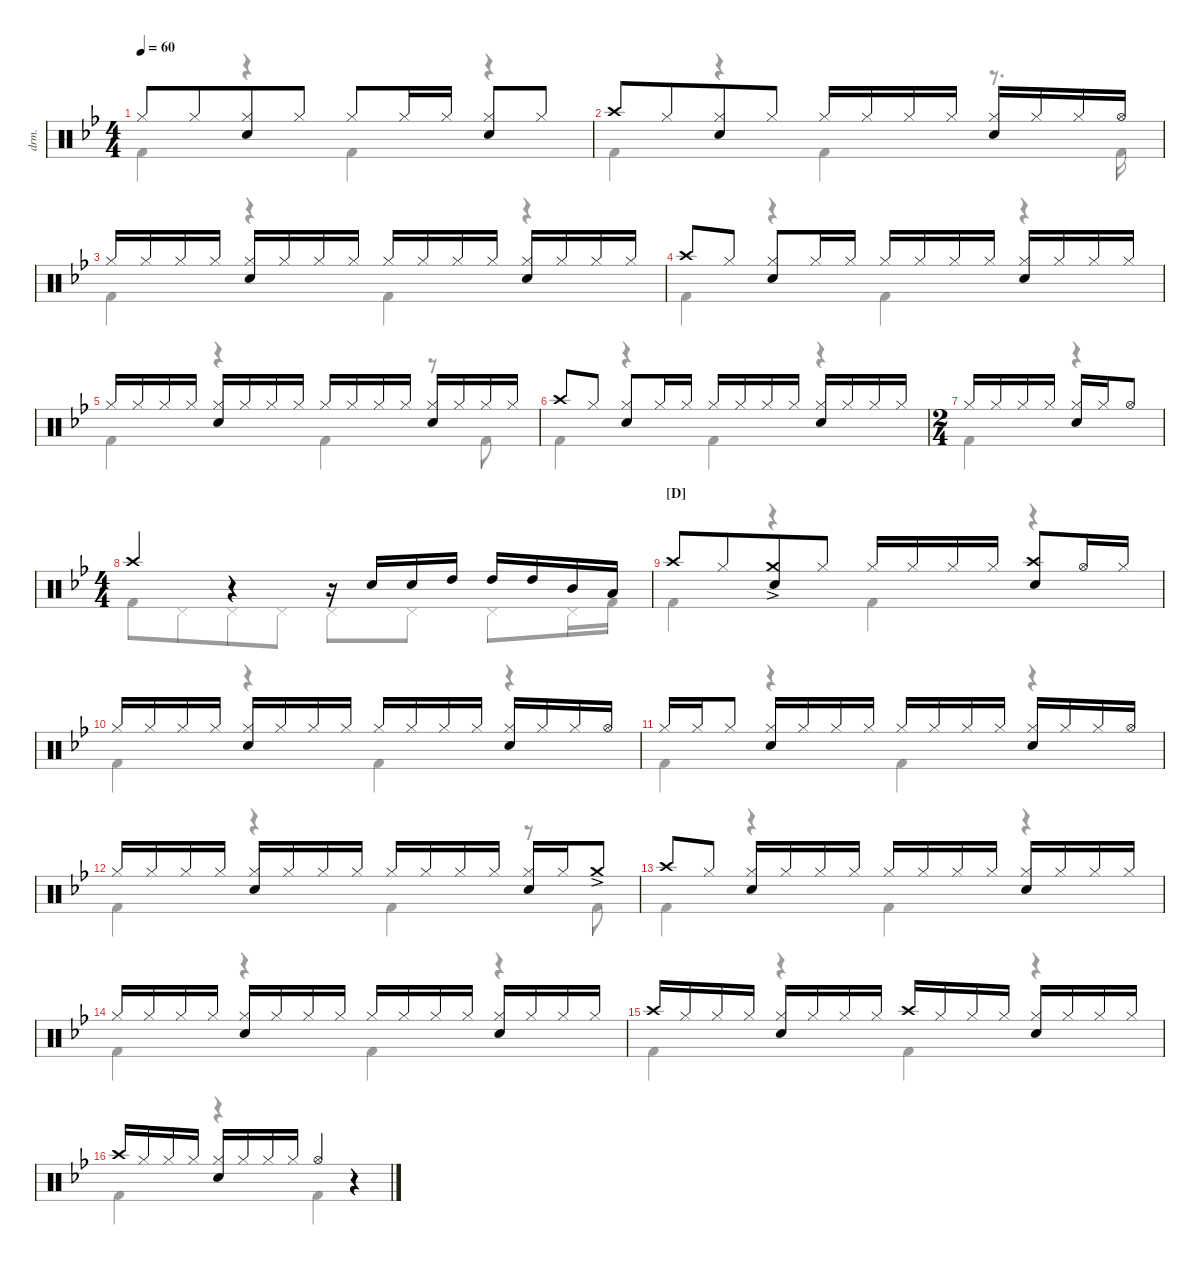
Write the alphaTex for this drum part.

\defaultSystemsLayout 4
\hideDynamics
\bracketExtendMode nobrackets
\otherSystemsTrackNameOrientation horizontal
\track ("Drumkit" "drm.") {instrument percussion}
\staff {score}
\articulation defaults
\voice
\ts (4 4)
\tempo 60
\clef neutral
\ks bb "Hi-Hat (closed)"{acc forcenatural}.8{dy mf beam Up} "Hi-Hat (closed)"{acc forcenatural}.8{dy mp beam Up beam merge}
("Hi-Hat (closed)"{acc forcenatural} "Snare (hit) 2"{acc forcenatural}).8{dy mf beam Up} "Hi-Hat (closed)"{acc forcenatural}.8{dy mp beam Up} "Hi-Hat (closed)"{acc forcenatural}.8{dy mf beam Up} "Hi-Hat (closed)"{acc forcenatural}.16{beam Up} "Hi-Hat (closed)"{acc forcenatural}.16{dy mp beam Up} ("Hi-Hat (closed)"{acc forcenatural} "Snare (hit) 2"{acc forcenatural}).8{dy mf beam Up} "Hi-Hat (closed)"{acc forcenatural}.8{beam Up} |
"Crash high (hit)"{acc forcenatural}.8{beam Up} "Hi-Hat (closed)"{acc forcenatural}.8{beam Up beam merge} ("Snare (hit) 2"{acc forcenatural} "Hi-Hat (closed)"{acc forcenatural}).8{beam Up} "Hi-Hat (closed)"{acc forcenatural}.8{beam Up} "Hi-Hat (closed)"{acc forcenatural}.16{beam Up} "Hi-Hat (closed)"{acc forcenatural}.16{dy mp beam Up} "Hi-Hat (closed)"{acc forcenatural}.16{dy mf beam Up} "Hi-Hat (closed)"{acc forcenatural}.16{dy mp beam Up} ("Hi-Hat (closed)"{acc forcenatural} "Snare (hit) 2"{acc forcenatural}).16{dy mf beam Up} "Hi-Hat (closed)"{acc forcenatural}.16{dy mp beam Up} "Hi-Hat (closed)"{acc forcenatural}.16{dy mf beam Up} "Hi-Hat (open)"{acc forcenatural}.16{beam Up} |
"Hi-Hat (closed)"{acc forcenatural}.16{beam Up} "Hi-Hat (closed)"{acc forcenatural}.16{dy mp beam Up} "Hi-Hat (closed)"{acc forcenatural}.16{dy mf beam Up} "Hi-Hat (closed)"{acc forcenatural}.16{dy mp beam Up} ("Hi-Hat (closed)"{acc forcenatural} "Snare (hit) 2"{acc forcenatural}).16{dy mf beam Up} "Hi-Hat (closed)"{acc forcenatural}.16{dy mp beam Up} "Hi-Hat (closed)"{acc forcenatural}.16{dy mf beam Up} "Hi-Hat (closed)"{acc forcenatural}.16{dy mp beam Up} "Hi-Hat (closed)"{acc forcenatural}.16{dy mf beam Up} "Hi-Hat (closed)"{acc forcenatural}.16{dy mp beam Up} "Hi-Hat (closed)"{acc forcenatural}.16{dy mf beam Up} "Hi-Hat (closed)"{acc forcenatural}.16{dy mp beam Up} ("Hi-Hat (closed)"{acc forcenatural} "Snare (hit) 2"{acc forcenatural}).16{dy mf beam Up} "Hi-Hat (closed)"{acc forcenatural}.16{dy mp beam Up} "Hi-Hat (closed)"{acc forcenatural}.16{dy mf beam Up} "Hi-Hat (closed)"{acc forcenatural}.16{dy mp beam Up} |
"Crash high (hit)"{acc forcenatural}.8{beam Up} "Hi-Hat (closed)"{acc forcenatural}.8{dy mf beam Up} ("Hi-Hat (closed)"{acc forcenatural} "Snare (hit) 2"{acc forcenatural}).8{beam Up} "Hi-Hat (closed)"{acc forcenatural}.16{beam Up} "Hi-Hat (closed)"{acc forcenatural}.16{dy mp beam Up} "Hi-Hat (closed)"{acc forcenatural}.16{dy mf beam Up} "Hi-Hat (closed)"{acc forcenatural}.16{dy mp beam Up} "Hi-Hat (closed)"{acc forcenatural}.16{dy mf beam Up} "Hi-Hat (closed)"{acc forcenatural}.16{dy mp beam Up} ("Hi-Hat (closed)"{acc forcenatural} "Snare (hit) 2"{acc forcenatural}).16{dy mf beam Up} "Hi-Hat (closed)"{acc forcenatural}.16{dy mp beam Up} "Hi-Hat (closed)"{acc forcenatural}.16{dy mf beam Up} "Hi-Hat (closed)"{acc forcenatural}.16{dy mp beam Up} |
"Hi-Hat (closed)"{acc forcenatural}.16{dy mf beam Up} "Hi-Hat (closed)"{acc forcenatural}.16{dy mp beam Up} "Hi-Hat (closed)"{acc forcenatural}.16{dy mf beam Up} "Hi-Hat (closed)"{acc forcenatural}.16{dy mp beam Up} ("Hi-Hat (closed)"{acc forcenatural} "Snare (hit) 2"{acc forcenatural}).16{dy mf beam Up} "Hi-Hat (closed)"{acc forcenatural}.16{dy mp beam Up} "Hi-Hat (closed)"{acc forcenatural}.16{dy mf beam Up} "Hi-Hat (closed)"{acc forcenatural}.16{dy mp beam Up} "Hi-Hat (closed)"{acc forcenatural}.16{dy mf beam Up} "Hi-Hat (closed)"{acc forcenatural}.16{dy mp beam Up} "Hi-Hat (closed)"{acc forcenatural}.16{dy mf beam Up} "Hi-Hat (closed)"{acc forcenatural}.16{dy mp beam Up} ("Hi-Hat (closed)"{acc forcenatural} "Snare (hit) 2"{acc forcenatural}).16{dy mf beam Up} "Hi-Hat (closed)"{acc forcenatural}.16{dy mp beam Up} "Hi-Hat (closed)"{acc forcenatural}.16{dy mf beam Up} "Hi-Hat (closed)"{acc forcenatural}.16{dy mp beam Up} |
"Crash high (hit)"{acc forcenatural}.8{beam Up} "Hi-Hat (closed)"{acc forcenatural}.8{dy mf beam Up} ("Hi-Hat (closed)"{acc forcenatural} "Snare (hit) 2"{acc forcenatural}).8{beam Up} "Hi-Hat (closed)"{acc forcenatural}.16{beam Up} "Hi-Hat (closed)"{acc forcenatural}.16{dy mp beam Up} "Hi-Hat (closed)"{acc forcenatural}.16{dy mf beam Up} "Hi-Hat (closed)"{acc forcenatural}.16{dy mp beam Up} "Hi-Hat (closed)"{acc forcenatural}.16{dy mf beam Up} "Hi-Hat (closed)"{acc forcenatural}.16{dy mp beam Up} ("Hi-Hat (closed)"{acc forcenatural} "Snare (hit) 2"{acc forcenatural}).16{dy mf beam Up} "Hi-Hat (closed)"{acc forcenatural}.16{dy mp beam Up} "Hi-Hat (closed)"{acc forcenatural}.16{dy mf beam Up} "Hi-Hat (closed)"{acc forcenatural}.16{dy mp beam Up} |
\ts (2 4)
"Hi-Hat (closed)"{acc forcenatural}.16{dy mf beam Up} "Hi-Hat (closed)"{acc forcenatural}.16{dy mp beam Up} "Hi-Hat (closed)"{acc forcenatural}.16{dy mf beam Up} "Hi-Hat (closed)"{acc forcenatural}.16{dy mp beam Up} ("Hi-Hat (closed)"{acc forcenatural} "Snare (hit) 2"{acc forcenatural}).16{dy mf beam Up} "Hi-Hat (closed)"{acc forcenatural}.16{dy mp beam Up} "Hi-Hat (open)"{acc forcenatural}.8{dy mf beam Up} |
\ts (4 4)
\beaming (8 2 2 2 2)
"Crash high (hit)"{acc forcenatural}.4{beam Up} r.4{beam Up} r.16{beam Up} "Snare (hit) 2"{acc forcenatural}.16{beam Up} "Snare (hit) 2"{acc forcenatural}.16{beam Up} "High Tom (hit)"{acc forcenatural}.16{beam Up} "High Tom (hit)"{acc forcenatural}.16{beam Up} "High Tom (hit)"{acc forcenatural}.16{beam Up} "Mid Tom (hit)"{acc forcenatural}.16{beam Up} "Low Tom (hit)"{acc forcenatural}.16{beam Up} |
\section ("D" "")
"Crash high (hit)"{acc forcenatural}.8{beam Up} "Hi-Hat (closed)"{acc forcenatural}.8{beam Up beam merge} ("Crash medium (hit)"{ac acc forcenatural} "Snare (hit) 2"{acc forcenatural}).8{beam Up} "Hi-Hat (closed)"{acc forcenatural}.8{beam Up} "Hi-Hat (closed)"{acc forcenatural}.16{beam Up} "Hi-Hat (closed)"{acc forcenatural}.16{dy mp beam Up} "Hi-Hat (closed)"{acc forcenatural}.16{dy mf beam Up} "Hi-Hat (closed)"{acc forcenatural}.16{dy mp beam Up} ("Snare (hit) 2"{acc forcenatural} "Crash high (hit)"{acc forcenatural}).8{dy mf beam Up} "Hi-Hat (open)"{acc forcenatural}.16{beam Up} "Hi-Hat (closed)"{acc forcenatural}.16{beam Up} |
"Hi-Hat (closed)"{acc forcenatural}.16{beam Up} "Hi-Hat (closed)"{acc forcenatural}.16{dy mp beam Up} "Hi-Hat (closed)"{acc forcenatural}.16{dy mf beam Up} "Hi-Hat (closed)"{acc forcenatural}.16{dy mp beam Up} ("Hi-Hat (closed)"{acc forcenatural} "Snare (hit) 2"{acc forcenatural}).16{dy mf beam Up} "Hi-Hat (closed)"{acc forcenatural}.16{dy mp beam Up} "Hi-Hat (closed)"{acc forcenatural}.16{dy mf beam Up} "Hi-Hat (closed)"{acc forcenatural}.16{dy mp beam Up} "Hi-Hat (closed)"{acc forcenatural}.16{dy mf beam Up} "Hi-Hat (closed)"{acc forcenatural}.16{dy mp beam Up} "Hi-Hat (closed)"{acc forcenatural}.16{dy mf beam Up} "Hi-Hat (closed)"{acc forcenatural}.16{dy mp beam Up} ("Hi-Hat (closed)"{acc forcenatural} "Snare (hit) 2"{acc forcenatural}).16{dy mf beam Up} "Hi-Hat (closed)"{acc forcenatural}.16{dy mp beam Up} "Hi-Hat (closed)"{acc forcenatural}.16{dy mf beam Up} "Hi-Hat (open)"{acc forcenatural}.16{beam Up} |
"Hi-Hat (closed)"{acc forcenatural}.16{beam Up} "Hi-Hat (closed)"{acc forcenatural}.16{dy mp beam Up} "Hi-Hat (closed)"{acc forcenatural}.8{dy mf beam Up} ("Hi-Hat (closed)"{acc forcenatural} "Snare (hit) 2"{acc forcenatural}).16{beam Up} "Hi-Hat (closed)"{acc forcenatural}.16{dy mp beam Up} "Hi-Hat (closed)"{acc forcenatural}.16{dy mf beam Up} "Hi-Hat (closed)"{acc forcenatural}.16{dy mp beam Up} "Hi-Hat (closed)"{acc forcenatural}.16{dy mf beam Up} "Hi-Hat (closed)"{acc forcenatural}.16{dy mp beam Up} "Hi-Hat (closed)"{acc forcenatural}.16{dy mf beam Up} "Hi-Hat (closed)"{acc forcenatural}.16{dy mp beam Up} ("Hi-Hat (closed)"{acc forcenatural} "Snare (hit) 2"{acc forcenatural}).16{dy mf beam Up} "Hi-Hat (closed)"{acc forcenatural}.16{dy mp beam Up} "Hi-Hat (closed)"{acc forcenatural}.16{dy mf beam Up} "Hi-Hat (open)"{acc forcenatural}.16{beam Up} |
"Hi-Hat (closed)"{acc forcenatural}.16{beam Up} "Hi-Hat (closed)"{acc forcenatural}.16{dy mp beam Up} "Hi-Hat (closed)"{acc forcenatural}.16{dy mf beam Up} "Hi-Hat (closed)"{acc forcenatural}.16{dy mp beam Up} ("Hi-Hat (closed)"{acc forcenatural} "Snare (hit) 2"{acc forcenatural}).16{dy mf beam Up} "Hi-Hat (closed)"{acc forcenatural}.16{dy mp beam Up} "Hi-Hat (closed)"{acc forcenatural}.16{dy mf beam Up} "Hi-Hat (closed)"{acc forcenatural}.16{dy mp beam Up} "Hi-Hat (closed)"{acc forcenatural}.16{dy mf beam Up} "Hi-Hat (closed)"{acc forcenatural}.16{dy mp beam Up} "Hi-Hat (closed)"{acc forcenatural}.16{dy mf beam Up} "Hi-Hat (closed)"{acc forcenatural}.16{dy mp beam Up} ("Hi-Hat (closed)"{acc forcenatural} "Snare (hit) 2"{acc forcenatural}).16{dy mf beam Up} "Hi-Hat (closed)"{acc forcenatural}.16{dy mp beam Up} "Crash medium (hit)"{ac acc forcenatural}.8{dy mf beam Up} |
"Crash high (hit)"{acc forcenatural}.8{beam Up} "Hi-Hat (closed)"{acc forcenatural}.8{beam Up} ("Hi-Hat (closed)"{acc forcenatural} "Snare (hit) 2"{acc forcenatural}).16{beam Up} "Hi-Hat (closed)"{acc forcenatural}.16{dy mp beam Up} "Hi-Hat (closed)"{acc forcenatural}.16{dy mf beam Up} "Hi-Hat (closed)"{acc forcenatural}.16{dy mp beam Up} "Hi-Hat (closed)"{acc forcenatural}.16{dy mf beam Up} "Hi-Hat (closed)"{acc forcenatural}.16{dy mp beam Up} "Hi-Hat (closed)"{acc forcenatural}.16{dy mf beam Up} "Hi-Hat (closed)"{acc forcenatural}.16{dy mp beam Up} ("Hi-Hat (closed)"{acc forcenatural} "Snare (hit) 2"{acc forcenatural}).16{dy mf beam Up} "Hi-Hat (closed)"{acc forcenatural}.16{dy mp beam Up} "Hi-Hat (closed)"{acc forcenatural}.16{dy mf beam Up} "Hi-Hat (closed)"{acc forcenatural}.16{dy mp beam Up} |
"Hi-Hat (closed)"{acc forcenatural}.16{dy mf beam Up} "Hi-Hat (closed)"{acc forcenatural}.16{dy mp beam Up} "Hi-Hat (closed)"{acc forcenatural}.16{dy mf beam Up} "Hi-Hat (closed)"{acc forcenatural}.16{dy mp beam Up} ("Hi-Hat (closed)"{acc forcenatural} "Snare (hit) 2"{acc forcenatural}).16{dy mf beam Up} "Hi-Hat (closed)"{acc forcenatural}.16{dy mp beam Up} "Hi-Hat (closed)"{acc forcenatural}.16{dy mf beam Up} "Hi-Hat (closed)"{acc forcenatural}.16{dy mp beam Up} "Hi-Hat (closed)"{acc forcenatural}.16{dy mf beam Up} "Hi-Hat (closed)"{acc forcenatural}.16{dy mp beam Up} "Hi-Hat (closed)"{acc forcenatural}.16{dy mf beam Up} "Hi-Hat (closed)"{acc forcenatural}.16{dy mp beam Up} ("Hi-Hat (closed)"{acc forcenatural} "Snare (hit) 2"{acc forcenatural}).16{dy mf beam Up} "Hi-Hat (closed)"{acc forcenatural}.16{dy mp beam Up} "Hi-Hat (closed)"{acc forcenatural}.16{dy mf beam Up} "Hi-Hat (closed)"{acc forcenatural}.16{dy mp beam Up} |
"Crash high (hit)"{acc forcenatural}.16{dy mf beam Up} "Hi-Hat (closed)"{acc forcenatural}.16{dy mp beam Up} "Hi-Hat (closed)"{acc forcenatural}.16{dy mf beam Up} "Hi-Hat (closed)"{acc forcenatural}.16{dy mp beam Up} ("Hi-Hat (closed)"{acc forcenatural} "Snare (hit) 2"{acc forcenatural}).16{dy mf beam Up} "Hi-Hat (closed)"{acc forcenatural}.16{dy mp beam Up} "Hi-Hat (closed)"{acc forcenatural}.16{dy mf beam Up} "Hi-Hat (closed)"{acc forcenatural}.16{dy mp beam Up} "Crash high (hit)"{acc forcenatural}.16{dy mf beam Up} "Hi-Hat (closed)"{acc forcenatural}.16{dy mp beam Up} "Hi-Hat (closed)"{acc forcenatural}.16{dy mf beam Up} "Hi-Hat (closed)"{acc forcenatural}.16{dy mp beam Up} ("Hi-Hat (closed)"{acc forcenatural} "Snare (hit) 2"{acc forcenatural}).16{dy mf beam Up} "Hi-Hat (closed)"{acc forcenatural}.16{dy mp beam Up} "Hi-Hat (closed)"{acc forcenatural}.16{dy mf beam Up} "Hi-Hat (closed)"{acc forcenatural}.16{dy mp beam Up} |
"Crash high (hit)"{acc forcenatural}.16{dy mf beam Up} "Hi-Hat (closed)"{acc forcenatural}.16{dy mp beam Up} "Hi-Hat (closed)"{acc forcenatural}.16{dy mf beam Up} "Hi-Hat (closed)"{acc forcenatural}.16{dy mp beam Up} ("Hi-Hat (closed)"{acc forcenatural} "Snare (hit) 2"{acc forcenatural}).16{dy mf beam Up} "Hi-Hat (closed)"{acc forcenatural}.16{dy mp beam Up} "Hi-Hat (closed)"{acc forcenatural}.16{dy mf beam Up} "Hi-Hat (closed)"{acc forcenatural}.16{dy mp beam Up} "Hi-Hat (open)"{acc forcenatural}.4{dy mf beam Up} r.4{beam Up}
\voice
\clef neutral
\ottava regular
\simile none
\ks bb "Kick (hit) 2"{acc forcenatural}.4{dy mf beam Down}
r.4{beam Down} "Kick (hit) 2"{acc forcenatural}.4{beam Down} r.4{beam Down} |
"Kick (hit) 2"{acc forcenatural}.4{beam Down} r.4{beam Down} "Kick (hit) 2"{acc forcenatural}.4{beam Down} r.8{d beam Down} "Kick (hit) 2"{acc forcenatural}.16{beam Down} |
"Kick (hit) 2"{acc forcenatural}.4{beam Down} r.4{beam Down} "Kick (hit) 2"{acc forcenatural}.4{beam Down} r.4{beam Down} |
"Kick (hit) 2"{acc forcenatural}.4{beam Down} r.4{beam Down} "Kick (hit) 2"{acc forcenatural}.4{beam Down} r.4{beam Down} |
"Kick (hit) 2"{acc forcenatural}.4{beam Down} r.4{beam Down} "Kick (hit) 2"{acc forcenatural}.4{beam Down} r.8{beam Down} "Kick (hit) 2"{acc forcenatural}.8{beam Down} |
"Kick (hit) 2"{acc forcenatural}.4{beam Down} r.4{beam Down} "Kick (hit) 2"{acc forcenatural}.4{beam Down} r.4{beam Down} |
"Kick (hit) 2"{acc forcenatural}.4{beam Down} r.4{beam Down} |
"Kick (hit) 2"{acc forcenatural}.8{beam Down} "Pedal Hi-Hat (hit)"{acc forcenatural}.8{beam Down beam merge} "Pedal Hi-Hat (hit)"{acc forcenatural}.8{beam Down} "Pedal Hi-Hat (hit)"{acc forcenatural}.8{beam Down} "Pedal Hi-Hat (hit)"{acc forcenatural}.8{beam Down} "Pedal Hi-Hat (hit)"{acc forcenatural}.8{beam Down} "Pedal Hi-Hat (hit)"{acc forcenatural}.8{beam Down} "Pedal Hi-Hat (hit)"{acc forcenatural}.16{beam Down} "Kick (hit) 2"{acc forcenatural}.16{beam Down} |
"Kick (hit) 2"{acc forcenatural}.4{beam Down} r.4{beam Down} "Kick (hit) 2"{acc forcenatural}.4{beam Down} r.4{beam Down} |
"Kick (hit) 2"{acc forcenatural}.4{beam Down} r.4{beam Down} "Kick (hit) 2"{acc forcenatural}.4{beam Down} r.4{beam Down} |
"Kick (hit) 2"{acc forcenatural}.4{beam Down} r.4{beam Down} "Kick (hit) 2"{acc forcenatural}.4{beam Down} r.4{beam Down} |
"Kick (hit) 2"{acc forcenatural}.4{beam Down} r.4{beam Down} "Kick (hit) 2"{acc forcenatural}.4{beam Down} r.8{beam Down} "Kick (hit) 2"{acc forcenatural}.8{beam Down} |
"Kick (hit) 2"{acc forcenatural}.4{beam Down} r.4{beam Down} "Kick (hit) 2"{acc forcenatural}.4{beam Down} r.4{beam Down} |
"Kick (hit) 2"{acc forcenatural}.4{beam Down} r.4{beam Down} "Kick (hit) 2"{acc forcenatural}.4{beam Down} r.4{beam Down} |
"Kick (hit) 2"{acc forcenatural}.4{beam Down} r.4{beam Down} "Kick (hit) 2"{acc forcenatural}.4{beam Down} r.4{beam Down} |
"Kick (hit) 2"{acc forcenatural}.4{beam Down} r.4{beam Down} "Kick (hit) 2"{acc forcenatural}.4{beam Down} r.4{beam Down}
